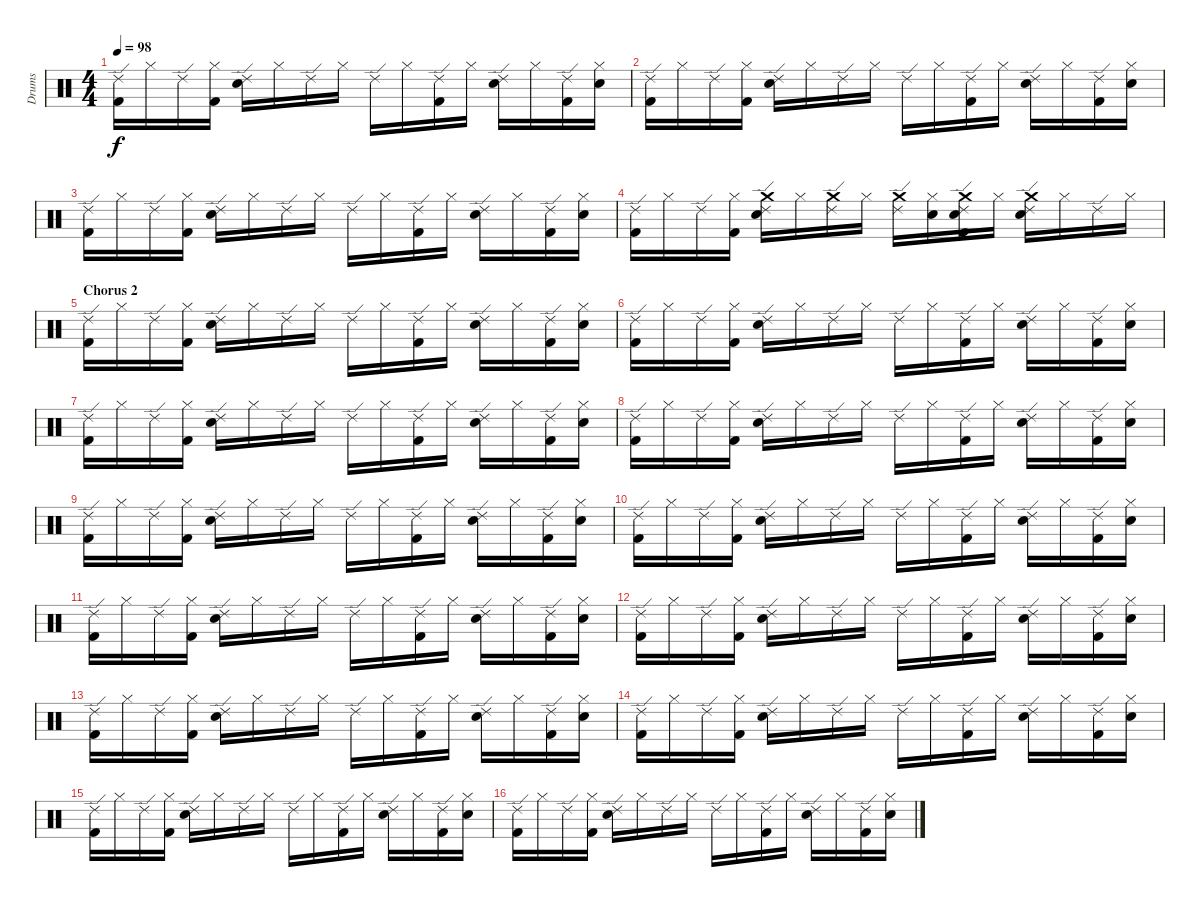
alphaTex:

\track ("Drums" "Drums") {instrument percussion}
\staff {score}
\articulation defaults
\ts (4 4)
\tempo 98
\clef neutral
\ks c
("Ride (edge) 2" "Kick (hit) 2").16{dy f} "Hi-Hat (closed)".16 "Ride (edge) 2".16 ("Hi-Hat (closed)" "Kick (hit) 2").16 ("Ride (edge) 2" "Electric Snare (hit)").16 "Hi-Hat (closed)".16 "Ride (edge) 2".16 "Hi-Hat (closed)".16 "Ride (edge) 2".16 "Hi-Hat (closed)".16 ("Ride (edge) 2" "Kick (hit) 2").16 "Hi-Hat (closed)".16 ("Ride (edge) 2" "Electric Snare (hit)").16 "Hi-Hat (closed)".16 ("Ride (edge) 2" "Kick (hit) 2").16 ("Hi-Hat (closed)" "Electric Snare (hit)").16 |
("Ride (edge) 2" "Kick (hit) 2").16 "Hi-Hat (closed)".16 "Ride (edge) 2".16 ("Hi-Hat (closed)" "Kick (hit) 2").16 ("Ride (edge) 2" "Electric Snare (hit)").16 "Hi-Hat (closed)".16 "Ride (edge) 2".16 "Hi-Hat (closed)".16 "Ride (edge) 2".16 "Hi-Hat (closed)".16 ("Ride (edge) 2" "Kick (hit) 2").16 "Hi-Hat (closed)".16 ("Ride (edge) 2" "Electric Snare (hit)").16 "Hi-Hat (closed)".16 ("Ride (edge) 2" "Kick (hit) 2").16 ("Hi-Hat (closed)" "Electric Snare (hit)").16 |
("Ride (edge) 2" "Kick (hit) 2").16 "Hi-Hat (closed)".16 "Ride (edge) 2".16 ("Hi-Hat (closed)" "Kick (hit) 2").16 ("Ride (edge) 2" "Electric Snare (hit)").16 "Hi-Hat (closed)".16 "Ride (edge) 2".16 "Hi-Hat (closed)".16 "Ride (edge) 2".16 "Hi-Hat (closed)".16 ("Ride (edge) 2" "Kick (hit) 2").16 "Hi-Hat (closed)".16 ("Ride (edge) 2" "Electric Snare (hit)").16 "Hi-Hat (closed)".16 ("Ride (edge) 2" "Kick (hit) 2").16 ("Hi-Hat (closed)" "Electric Snare (hit)").16 |
("Ride (edge) 2" "Kick (hit) 2").16 "Hi-Hat (closed)".16 "Ride (edge) 2".16 ("Hi-Hat (closed)" "Kick (hit) 2").16 ("Ride (edge) 2" "Electric Snare (hit)" "Crash medium (hit)").16 "Hi-Hat (closed)".16 ("Ride (edge) 2" "Crash medium (hit)").16 "Hi-Hat (closed)".16 ("Ride (edge) 2" "Crash medium (hit)").16 ("Hi-Hat (closed)" "Electric Snare (hit)").16 ("Ride (edge) 2" "Electric Snare (hit)" "Crash medium (hit)" "Kick (hit) 2").16 "Hi-Hat (closed)".16 ("Ride (edge) 2" "Electric Snare (hit)" "Crash medium (hit)").16 "Hi-Hat (closed)".16 "Ride (edge) 2".16 "Hi-Hat (closed)".16 |
\section ("" "Chorus 2")
("Ride (edge) 2" "Kick (hit) 2").16 "Hi-Hat (closed)".16 "Ride (edge) 2".16 ("Hi-Hat (closed)" "Kick (hit) 2").16 ("Ride (edge) 2" "Electric Snare (hit)").16 "Hi-Hat (closed)".16 "Ride (edge) 2".16 "Hi-Hat (closed)".16 "Ride (edge) 2".16 "Hi-Hat (closed)".16 ("Ride (edge) 2" "Kick (hit) 2").16 "Hi-Hat (closed)".16 ("Ride (edge) 2" "Electric Snare (hit)").16 "Hi-Hat (closed)".16 ("Ride (edge) 2" "Kick (hit) 2").16 ("Hi-Hat (closed)" "Electric Snare (hit)").16 |
("Ride (edge) 2" "Kick (hit) 2").16 "Hi-Hat (closed)".16 "Ride (edge) 2".16 ("Hi-Hat (closed)" "Kick (hit) 2").16 ("Ride (edge) 2" "Electric Snare (hit)").16 "Hi-Hat (closed)".16 "Ride (edge) 2".16 "Hi-Hat (closed)".16 "Ride (edge) 2".16 "Hi-Hat (closed)".16 ("Ride (edge) 2" "Kick (hit) 2").16 "Hi-Hat (closed)".16 ("Ride (edge) 2" "Electric Snare (hit)").16 "Hi-Hat (closed)".16 ("Ride (edge) 2" "Kick (hit) 2").16 ("Hi-Hat (closed)" "Electric Snare (hit)").16 |
("Ride (edge) 2" "Kick (hit) 2").16 "Hi-Hat (closed)".16 "Ride (edge) 2".16 ("Hi-Hat (closed)" "Kick (hit) 2").16 ("Ride (edge) 2" "Electric Snare (hit)").16 "Hi-Hat (closed)".16 "Ride (edge) 2".16 "Hi-Hat (closed)".16 "Ride (edge) 2".16 "Hi-Hat (closed)".16 ("Ride (edge) 2" "Kick (hit) 2").16 "Hi-Hat (closed)".16 ("Ride (edge) 2" "Electric Snare (hit)").16 "Hi-Hat (closed)".16 ("Ride (edge) 2" "Kick (hit) 2").16 ("Hi-Hat (closed)" "Electric Snare (hit)").16 |
("Ride (edge) 2" "Kick (hit) 2").16 "Hi-Hat (closed)".16 "Ride (edge) 2".16 ("Hi-Hat (closed)" "Kick (hit) 2").16 ("Ride (edge) 2" "Electric Snare (hit)").16 "Hi-Hat (closed)".16 "Ride (edge) 2".16 "Hi-Hat (closed)".16 "Ride (edge) 2".16 "Hi-Hat (closed)".16 ("Ride (edge) 2" "Kick (hit) 2").16 "Hi-Hat (closed)".16 ("Ride (edge) 2" "Electric Snare (hit)").16 "Hi-Hat (closed)".16 ("Ride (edge) 2" "Kick (hit) 2").16 ("Hi-Hat (closed)" "Electric Snare (hit)").16 |
("Ride (edge) 2" "Kick (hit) 2").16 "Hi-Hat (closed)".16 "Ride (edge) 2".16 ("Hi-Hat (closed)" "Kick (hit) 2").16 ("Ride (edge) 2" "Electric Snare (hit)").16 "Hi-Hat (closed)".16 "Ride (edge) 2".16 "Hi-Hat (closed)".16 "Ride (edge) 2".16 "Hi-Hat (closed)".16 ("Ride (edge) 2" "Kick (hit) 2").16 "Hi-Hat (closed)".16 ("Ride (edge) 2" "Electric Snare (hit)").16 "Hi-Hat (closed)".16 ("Ride (edge) 2" "Kick (hit) 2").16 ("Hi-Hat (closed)" "Electric Snare (hit)").16 |
("Ride (edge) 2" "Kick (hit) 2").16 "Hi-Hat (closed)".16 "Ride (edge) 2".16 ("Hi-Hat (closed)" "Kick (hit) 2").16 ("Ride (edge) 2" "Electric Snare (hit)").16 "Hi-Hat (closed)".16 "Ride (edge) 2".16 "Hi-Hat (closed)".16 "Ride (edge) 2".16 "Hi-Hat (closed)".16 ("Ride (edge) 2" "Kick (hit) 2").16 "Hi-Hat (closed)".16 ("Ride (edge) 2" "Electric Snare (hit)").16 "Hi-Hat (closed)".16 ("Ride (edge) 2" "Kick (hit) 2").16 ("Hi-Hat (closed)" "Electric Snare (hit)").16 |
("Ride (edge) 2" "Kick (hit) 2").16 "Hi-Hat (closed)".16 "Ride (edge) 2".16 ("Hi-Hat (closed)" "Kick (hit) 2").16 ("Ride (edge) 2" "Electric Snare (hit)").16 "Hi-Hat (closed)".16 "Ride (edge) 2".16 "Hi-Hat (closed)".16 "Ride (edge) 2".16 "Hi-Hat (closed)".16 ("Ride (edge) 2" "Kick (hit) 2").16 "Hi-Hat (closed)".16 ("Ride (edge) 2" "Electric Snare (hit)").16 "Hi-Hat (closed)".16 ("Ride (edge) 2" "Kick (hit) 2").16 ("Hi-Hat (closed)" "Electric Snare (hit)").16 |
("Ride (edge) 2" "Kick (hit) 2").16 "Hi-Hat (closed)".16 "Ride (edge) 2".16 ("Hi-Hat (closed)" "Kick (hit) 2").16 ("Ride (edge) 2" "Electric Snare (hit)").16 "Hi-Hat (closed)".16 "Ride (edge) 2".16 "Hi-Hat (closed)".16 "Ride (edge) 2".16 "Hi-Hat (closed)".16 ("Ride (edge) 2" "Kick (hit) 2").16 "Hi-Hat (closed)".16 ("Ride (edge) 2" "Electric Snare (hit)").16 "Hi-Hat (closed)".16 ("Ride (edge) 2" "Kick (hit) 2").16 ("Hi-Hat (closed)" "Electric Snare (hit)").16 |
("Ride (edge) 2" "Kick (hit) 2").16 "Hi-Hat (closed)".16 "Ride (edge) 2".16 ("Hi-Hat (closed)" "Kick (hit) 2").16 ("Ride (edge) 2" "Electric Snare (hit)").16 "Hi-Hat (closed)".16 "Ride (edge) 2".16 "Hi-Hat (closed)".16 "Ride (edge) 2".16 "Hi-Hat (closed)".16 ("Ride (edge) 2" "Kick (hit) 2").16 "Hi-Hat (closed)".16 ("Ride (edge) 2" "Electric Snare (hit)").16 "Hi-Hat (closed)".16 ("Ride (edge) 2" "Kick (hit) 2").16 ("Hi-Hat (closed)" "Electric Snare (hit)").16 |
("Ride (edge) 2" "Kick (hit) 2").16 "Hi-Hat (closed)".16 "Ride (edge) 2".16 ("Hi-Hat (closed)" "Kick (hit) 2").16 ("Ride (edge) 2" "Electric Snare (hit)").16 "Hi-Hat (closed)".16 "Ride (edge) 2".16 "Hi-Hat (closed)".16 "Ride (edge) 2".16 "Hi-Hat (closed)".16 ("Ride (edge) 2" "Kick (hit) 2").16 "Hi-Hat (closed)".16 ("Ride (edge) 2" "Electric Snare (hit)").16 "Hi-Hat (closed)".16 ("Ride (edge) 2" "Kick (hit) 2").16 ("Hi-Hat (closed)" "Electric Snare (hit)").16 |
("Ride (edge) 2" "Kick (hit) 2").16 "Hi-Hat (closed)".16 "Ride (edge) 2".16 ("Hi-Hat (closed)" "Kick (hit) 2").16 ("Ride (edge) 2" "Electric Snare (hit)").16 "Hi-Hat (closed)".16 "Ride (edge) 2".16 "Hi-Hat (closed)".16 "Ride (edge) 2".16 "Hi-Hat (closed)".16 ("Ride (edge) 2" "Kick (hit) 2").16 "Hi-Hat (closed)".16 ("Ride (edge) 2" "Electric Snare (hit)").16 "Hi-Hat (closed)".16 ("Ride (edge) 2" "Kick (hit) 2").16 ("Hi-Hat (closed)" "Electric Snare (hit)").16 |
("Ride (edge) 2" "Kick (hit) 2").16 "Hi-Hat (closed)".16 "Ride (edge) 2".16 ("Hi-Hat (closed)" "Kick (hit) 2").16 ("Ride (edge) 2" "Electric Snare (hit)").16 "Hi-Hat (closed)".16 "Ride (edge) 2".16 "Hi-Hat (closed)".16 "Ride (edge) 2".16 "Hi-Hat (closed)".16 ("Ride (edge) 2" "Kick (hit) 2").16 "Hi-Hat (closed)".16 ("Ride (edge) 2" "Electric Snare (hit)").16 "Hi-Hat (closed)".16 ("Ride (edge) 2" "Kick (hit) 2").16 ("Hi-Hat (closed)" "Electric Snare (hit)").16
